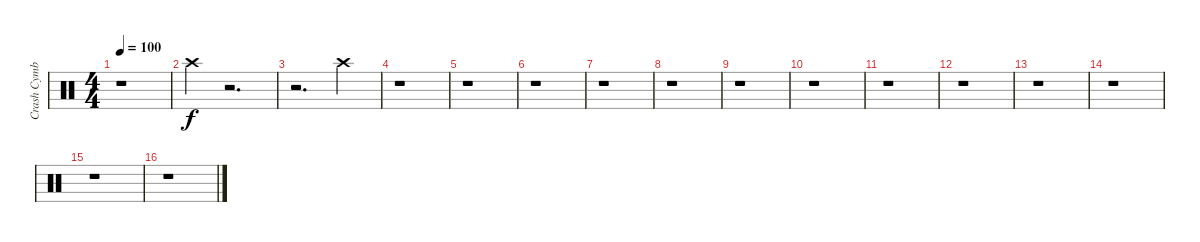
\track ("Crash Cymbal" "Crash Cymb") {instrument percussion}
\staff {score}
\articulation defaults
\ts (4 4)
\tempo 100
\clef neutral
\ks c
r.1{dy f} |
"Crash high (hit)".4 r.2{d} |
r.2{d} "Crash high (hit)".4 |
r.1 |
r.1 |
r.1 |
r.1 |
r.1 |
r.1 |
r.1 |
r.1 |
r.1 |
r.1 |
r.1 |
r.1 |
r.1
